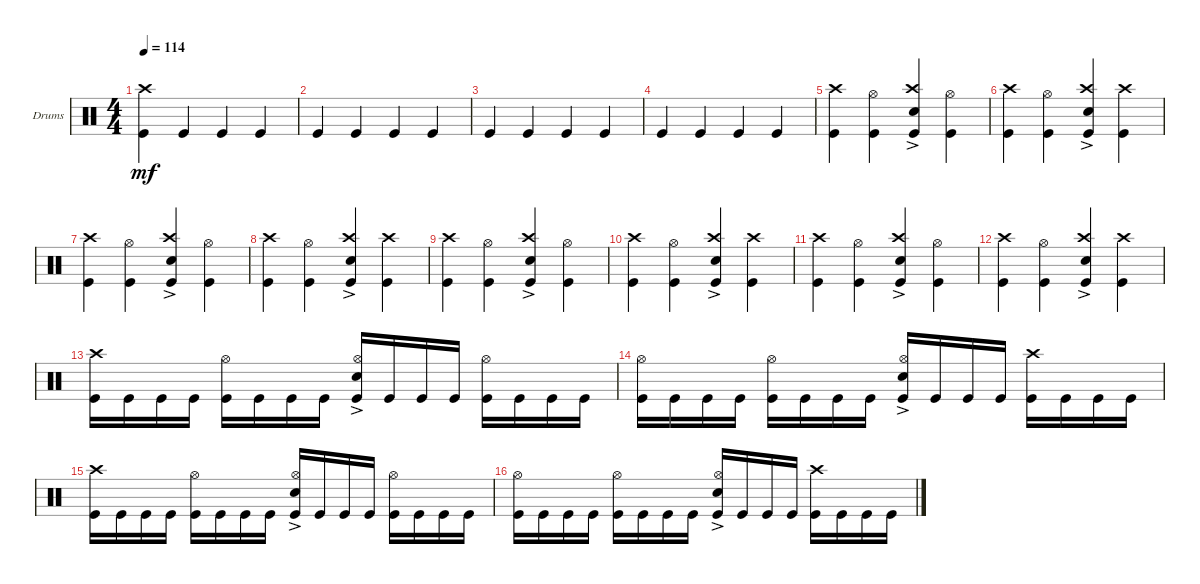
\bracketExtendMode groupsimilarinstruments
\firstSystemTrackNameOrientation horizontal
\otherSystemsTrackNameOrientation horizontal
\track ("Drumkit" "Drums") {instrument percussion}
\staff {score}
\articulation defaults
\ts (4 4)
\beaming (8 2 2 2 2)
\tempo 114
\clef neutral
\scale
0.474178
\ks c
("Kick (hit)" "Crash high (hit)").4{dy mf} "Kick (hit)".4 "Kick (hit)".4 "Kick (hit)".4 |
\scale
0.262911 "Kick (hit)".4 "Kick (hit)".4 "Kick (hit)".4 "Kick (hit)".4 |
\scale
0.262911 "Kick (hit)".4 "Kick (hit)".4 "Kick (hit)".4 "Kick (hit)".4 |
"Kick (hit)".4 "Kick (hit)".4 "Kick (hit)".4 "Kick (hit)".4 |
("Kick (hit)" "Crash high (hit)").4 ("Kick (hit)" "Hi-Hat (open)").4 ("Snare (hit) 2"{ac} "Kick (hit)" "Crash high (hit)").4 ("Kick (hit)" "Hi-Hat (open)").4 |
("Kick (hit)" "Crash high (hit)").4 ("Kick (hit)" "Hi-Hat (open)").4 ("Snare (hit) 2"{ac} "Kick (hit)" "Crash high (hit)").4 ("Kick (hit)" "Crash high (hit)").4 |
("Kick (hit)" "Crash high (hit)").4 ("Kick (hit)" "Hi-Hat (open)").4 ("Snare (hit) 2"{ac} "Kick (hit)" "Crash high (hit)").4 ("Kick (hit)" "Hi-Hat (open)").4 |
("Kick (hit)" "Crash high (hit)").4 ("Kick (hit)" "Hi-Hat (open)").4 ("Snare (hit) 2"{ac} "Kick (hit)" "Crash high (hit)").4 ("Kick (hit)" "Crash high (hit)").4 |
("Kick (hit)" "Crash high (hit)").4 ("Kick (hit)" "Hi-Hat (open)").4 ("Snare (hit) 2"{ac} "Kick (hit)" "Crash high (hit)").4 ("Kick (hit)" "Hi-Hat (open)").4 |
("Kick (hit)" "Crash high (hit)").4 ("Kick (hit)" "Hi-Hat (open)").4 ("Snare (hit) 2"{ac} "Kick (hit)" "Crash high (hit)").4 ("Kick (hit)" "Crash high (hit)").4 |
("Kick (hit)" "Crash high (hit)").4 ("Kick (hit)" "Hi-Hat (open)").4 ("Snare (hit) 2"{ac} "Kick (hit)" "Crash high (hit)").4 ("Kick (hit)" "Hi-Hat (open)").4 |
("Kick (hit)" "Crash high (hit)").4 ("Kick (hit)" "Hi-Hat (open)").4 ("Snare (hit) 2"{ac} "Kick (hit)" "Crash high (hit)").4 ("Kick (hit)" "Crash high (hit)").4 |
("Kick (hit)" "Crash high (hit)").16 "Kick (hit)".16 "Kick (hit)".16 "Kick (hit)".16 ("Kick (hit)" "Hi-Hat (open)").16 "Kick (hit)".16 "Kick (hit)".16 "Kick (hit)".16 ("Kick (hit)" "Snare (hit) 2"{ac} "Hi-Hat (open)").16 "Kick (hit)".16 "Kick (hit)".16 "Kick (hit)".16 ("Kick (hit)" "Hi-Hat (open)").16 "Kick (hit)".16 "Kick (hit)".16 "Kick (hit)".16 |
("Kick (hit)" "Hi-Hat (open)").16 "Kick (hit)".16 "Kick (hit)".16 "Kick (hit)".16 ("Kick (hit)" "Hi-Hat (open)").16 "Kick (hit)".16 "Kick (hit)".16 "Kick (hit)".16 ("Kick (hit)" "Snare (hit) 2"{ac} "Hi-Hat (open)").16 "Kick (hit)".16 "Kick (hit)".16 "Kick (hit)".16 ("Kick (hit)" "Crash high (hit)").16 "Kick (hit)".16 "Kick (hit)".16 "Kick (hit)".16 |
("Kick (hit)" "Crash high (hit)").16 "Kick (hit)".16 "Kick (hit)".16 "Kick (hit)".16 ("Kick (hit)" "Hi-Hat (open)").16 "Kick (hit)".16 "Kick (hit)".16 "Kick (hit)".16 ("Kick (hit)" "Snare (hit) 2"{ac} "Hi-Hat (open)").16 "Kick (hit)".16 "Kick (hit)".16 "Kick (hit)".16 ("Kick (hit)" "Hi-Hat (open)").16 "Kick (hit)".16 "Kick (hit)".16 "Kick (hit)".16 |
("Kick (hit)" "Hi-Hat (open)").16 "Kick (hit)".16 "Kick (hit)".16 "Kick (hit)".16 ("Kick (hit)" "Hi-Hat (open)").16 "Kick (hit)".16 "Kick (hit)".16 "Kick (hit)".16 ("Kick (hit)" "Snare (hit) 2"{ac} "Hi-Hat (open)").16 "Kick (hit)".16 "Kick (hit)".16 "Kick (hit)".16 ("Kick (hit)" "Crash high (hit)").16 "Kick (hit)".16 "Kick (hit)".16 "Kick (hit)".16
